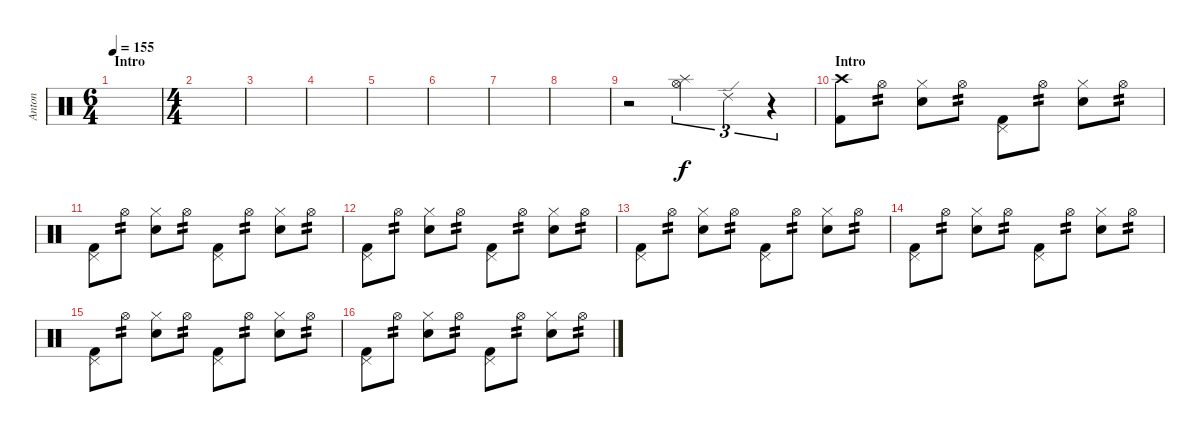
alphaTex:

\track ("Anton" "Anton") {instrument percussion}
\staff {score}
\articulation defaults
\ts (6 4)
\section ("" "Intro")
\tempo 155
\clef neutral
\ks c
|
\ts (4 4)
|
|
|
|
|
|
|
r.2 ("Splash (hit)" "Hi-Hat (open)").4{tu (3 2)} "Ride (edge) 2".4{tu (3 2)} r.4{tu (3 2)} |
\section ("" "Intro")
("Kick (hit) 2" "Crash high (hit)").8 "Hi-Hat (open)".8{tp 2} ("Electric Snare (hit)" "Hi-Hat (closed)").8 "Hi-Hat (open)".8{tp 2} ("Kick (hit) 2" "Pedal Hi-Hat (hit)").8 "Hi-Hat (open)".8{tp 2} ("Electric Snare (hit)" "Hi-Hat (closed)").8 "Hi-Hat (open)".8{tp 2} |
("Kick (hit) 2" "Pedal Hi-Hat (hit)").8 "Hi-Hat (open)".8{tp 2} ("Electric Snare (hit)" "Hi-Hat (closed)").8 "Hi-Hat (open)".8{tp 2} ("Kick (hit) 2" "Pedal Hi-Hat (hit)").8 "Hi-Hat (open)".8{tp 2} ("Electric Snare (hit)" "Hi-Hat (closed)").8 "Hi-Hat (open)".8{tp 2} |
("Kick (hit) 2" "Pedal Hi-Hat (hit)").8 "Hi-Hat (open)".8{tp 2} ("Electric Snare (hit)" "Hi-Hat (closed)").8 "Hi-Hat (open)".8{tp 2} ("Kick (hit) 2" "Pedal Hi-Hat (hit)").8 "Hi-Hat (open)".8{tp 2} ("Electric Snare (hit)" "Hi-Hat (closed)").8 "Hi-Hat (open)".8{tp 2} |
("Kick (hit) 2" "Pedal Hi-Hat (hit)").8 "Hi-Hat (open)".8{tp 2} ("Electric Snare (hit)" "Hi-Hat (closed)").8 "Hi-Hat (open)".8{tp 2} ("Kick (hit) 2" "Pedal Hi-Hat (hit)").8 "Hi-Hat (open)".8{tp 2} ("Electric Snare (hit)" "Hi-Hat (closed)").8 "Hi-Hat (open)".8{tp 2} |
("Kick (hit) 2" "Pedal Hi-Hat (hit)").8 "Hi-Hat (open)".8{tp 2} ("Electric Snare (hit)" "Hi-Hat (closed)").8 "Hi-Hat (open)".8{tp 2} ("Kick (hit) 2" "Pedal Hi-Hat (hit)").8 "Hi-Hat (open)".8{tp 2} ("Electric Snare (hit)" "Hi-Hat (closed)").8 "Hi-Hat (open)".8{tp 2} |
("Kick (hit) 2" "Pedal Hi-Hat (hit)").8 "Hi-Hat (open)".8{tp 2} ("Electric Snare (hit)" "Hi-Hat (closed)").8 "Hi-Hat (open)".8{tp 2} ("Kick (hit) 2" "Pedal Hi-Hat (hit)").8 "Hi-Hat (open)".8{tp 2} ("Electric Snare (hit)" "Hi-Hat (closed)").8 "Hi-Hat (open)".8{tp 2} |
("Kick (hit) 2" "Pedal Hi-Hat (hit)").8 "Hi-Hat (open)".8{tp 2} ("Electric Snare (hit)" "Hi-Hat (closed)").8 "Hi-Hat (open)".8{tp 2} ("Kick (hit) 2" "Pedal Hi-Hat (hit)").8 "Hi-Hat (open)".8{tp 2} ("Electric Snare (hit)" "Hi-Hat (closed)").8 "Hi-Hat (open)".8{tp 2}
